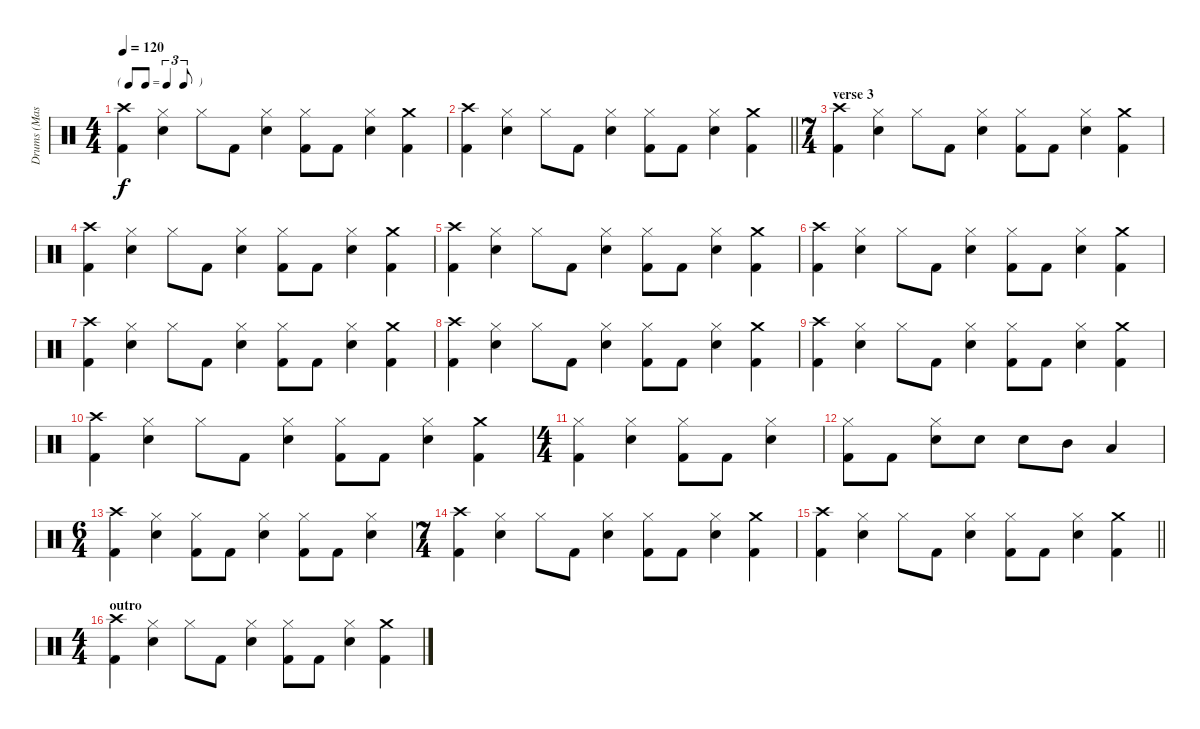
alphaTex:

\track ("Drums (Mason)" "Drums (Mas") {instrument percussion}
\staff {score}
\articulation defaults
\ts (4 4)
\tf triplet8th
\tempo 120
\clef neutral
\ks c
("Crash high (hit)" "Kick (hit) 2").4{dy f} ("Hi-Hat (closed)" "Electric Snare (hit)").4 "Hi-Hat (closed)".8 "Kick (hit) 2".8 ("Hi-Hat (closed)" "Electric Snare (hit)").4 ("Hi-Hat (closed)" "Kick (hit) 2").8 "Kick (hit) 2".8 ("Hi-Hat (closed)" "Electric Snare (hit)").4 ("Crash medium (hit)" "Kick (hit) 2").4 |
\barLineRight lightlight
("Crash high (hit)" "Kick (hit) 2").4 ("Hi-Hat (closed)" "Electric Snare (hit)").4 "Hi-Hat (closed)".8 "Kick (hit) 2".8 ("Hi-Hat (closed)" "Electric Snare (hit)").4 ("Hi-Hat (closed)" "Kick (hit) 2").8 "Kick (hit) 2".8 ("Hi-Hat (closed)" "Electric Snare (hit)").4 ("Crash medium (hit)" "Kick (hit) 2").4 |
\ts (7 4)
\section ("" "verse 3")
("Crash high (hit)" "Kick (hit) 2").4 ("Hi-Hat (closed)" "Electric Snare (hit)").4 "Hi-Hat (closed)".8 "Kick (hit) 2".8 ("Hi-Hat (closed)" "Electric Snare (hit)").4 ("Hi-Hat (closed)" "Kick (hit) 2").8 "Kick (hit) 2".8 ("Hi-Hat (closed)" "Electric Snare (hit)").4 ("Crash medium (hit)" "Kick (hit) 2").4 |
("Crash high (hit)" "Kick (hit) 2").4 ("Hi-Hat (closed)" "Electric Snare (hit)").4 "Hi-Hat (closed)".8 "Kick (hit) 2".8 ("Hi-Hat (closed)" "Electric Snare (hit)").4 ("Hi-Hat (closed)" "Kick (hit) 2").8 "Kick (hit) 2".8 ("Hi-Hat (closed)" "Electric Snare (hit)").4 ("Crash medium (hit)" "Kick (hit) 2").4 |
("Crash high (hit)" "Kick (hit) 2").4 ("Hi-Hat (closed)" "Electric Snare (hit)").4 "Hi-Hat (closed)".8 "Kick (hit) 2".8 ("Hi-Hat (closed)" "Electric Snare (hit)").4 ("Hi-Hat (closed)" "Kick (hit) 2").8 "Kick (hit) 2".8 ("Hi-Hat (closed)" "Electric Snare (hit)").4 ("Crash medium (hit)" "Kick (hit) 2").4 |
("Crash high (hit)" "Kick (hit) 2").4 ("Hi-Hat (closed)" "Electric Snare (hit)").4 "Hi-Hat (closed)".8 "Kick (hit) 2".8 ("Hi-Hat (closed)" "Electric Snare (hit)").4 ("Hi-Hat (closed)" "Kick (hit) 2").8 "Kick (hit) 2".8 ("Hi-Hat (closed)" "Electric Snare (hit)").4 ("Crash medium (hit)" "Kick (hit) 2").4 |
("Crash high (hit)" "Kick (hit) 2").4 ("Hi-Hat (closed)" "Electric Snare (hit)").4 "Hi-Hat (closed)".8 "Kick (hit) 2".8 ("Hi-Hat (closed)" "Electric Snare (hit)").4 ("Hi-Hat (closed)" "Kick (hit) 2").8 "Kick (hit) 2".8 ("Hi-Hat (closed)" "Electric Snare (hit)").4 ("Crash medium (hit)" "Kick (hit) 2").4 |
("Crash high (hit)" "Kick (hit) 2").4 ("Hi-Hat (closed)" "Electric Snare (hit)").4 "Hi-Hat (closed)".8 "Kick (hit) 2".8 ("Hi-Hat (closed)" "Electric Snare (hit)").4 ("Hi-Hat (closed)" "Kick (hit) 2").8 "Kick (hit) 2".8 ("Hi-Hat (closed)" "Electric Snare (hit)").4 ("Crash medium (hit)" "Kick (hit) 2").4 |
("Crash high (hit)" "Kick (hit) 2").4 ("Hi-Hat (closed)" "Electric Snare (hit)").4 "Hi-Hat (closed)".8 "Kick (hit) 2".8 ("Hi-Hat (closed)" "Electric Snare (hit)").4 ("Hi-Hat (closed)" "Kick (hit) 2").8 "Kick (hit) 2".8 ("Hi-Hat (closed)" "Electric Snare (hit)").4 ("Crash medium (hit)" "Kick (hit) 2").4 |
("Crash high (hit)" "Kick (hit) 2").4 ("Hi-Hat (closed)" "Electric Snare (hit)").4 "Hi-Hat (closed)".8 "Kick (hit) 2".8 ("Hi-Hat (closed)" "Electric Snare (hit)").4 ("Hi-Hat (closed)" "Kick (hit) 2").8 "Kick (hit) 2".8 ("Hi-Hat (closed)" "Electric Snare (hit)").4 ("Crash medium (hit)" "Kick (hit) 2").4 |
\ts (4 4)
("Hi-Hat (closed)" "Kick (hit) 2").4 ("Hi-Hat (closed)" "Electric Snare (hit)").4 ("Hi-Hat (closed)" "Kick (hit) 2").8 "Kick (hit) 2".8 ("Hi-Hat (closed)" "Electric Snare (hit)").4 |
("Hi-Hat (closed)" "Kick (hit) 2").8 "Kick (hit) 2".8 ("Hi-Hat (closed)" "Electric Snare (hit)").8 "Electric Snare (hit)".8 "Electric Snare (hit)".8 "Mid Tom (hit)".8 "Low Tom (hit)".4 |
\ts (6 4)
("Crash high (hit)" "Kick (hit) 2").4 ("Hi-Hat (closed)" "Electric Snare (hit)").4 ("Hi-Hat (closed)" "Kick (hit) 2").8 "Kick (hit) 2".8 ("Hi-Hat (closed)" "Electric Snare (hit)").4 ("Hi-Hat (closed)" "Kick (hit) 2").8 "Kick (hit) 2".8 ("Hi-Hat (closed)" "Electric Snare (hit)").4 |
\ts (7 4)
("Crash high (hit)" "Kick (hit) 2").4 ("Hi-Hat (closed)" "Electric Snare (hit)").4 "Hi-Hat (closed)".8 "Kick (hit) 2".8 ("Hi-Hat (closed)" "Electric Snare (hit)").4 ("Hi-Hat (closed)" "Kick (hit) 2").8 "Kick (hit) 2".8 ("Hi-Hat (closed)" "Electric Snare (hit)").4 ("Crash medium (hit)" "Kick (hit) 2").4 |
\barLineRight lightlight
("Crash high (hit)" "Kick (hit) 2").4 ("Hi-Hat (closed)" "Electric Snare (hit)").4 "Hi-Hat (closed)".8 "Kick (hit) 2".8 ("Hi-Hat (closed)" "Electric Snare (hit)").4 ("Hi-Hat (closed)" "Kick (hit) 2").8 "Kick (hit) 2".8 ("Hi-Hat (closed)" "Electric Snare (hit)").4 ("Crash medium (hit)" "Kick (hit) 2").4 |
\ts (4 4)
\section ("" "outro")
("Crash high (hit)" "Kick (hit) 2").4 ("Hi-Hat (closed)" "Electric Snare (hit)").4 "Hi-Hat (closed)".8 "Kick (hit) 2".8 ("Hi-Hat (closed)" "Electric Snare (hit)").4 ("Hi-Hat (closed)" "Kick (hit) 2").8 "Kick (hit) 2".8 ("Hi-Hat (closed)" "Electric Snare (hit)").4 ("Crash medium (hit)" "Kick (hit) 2").4
